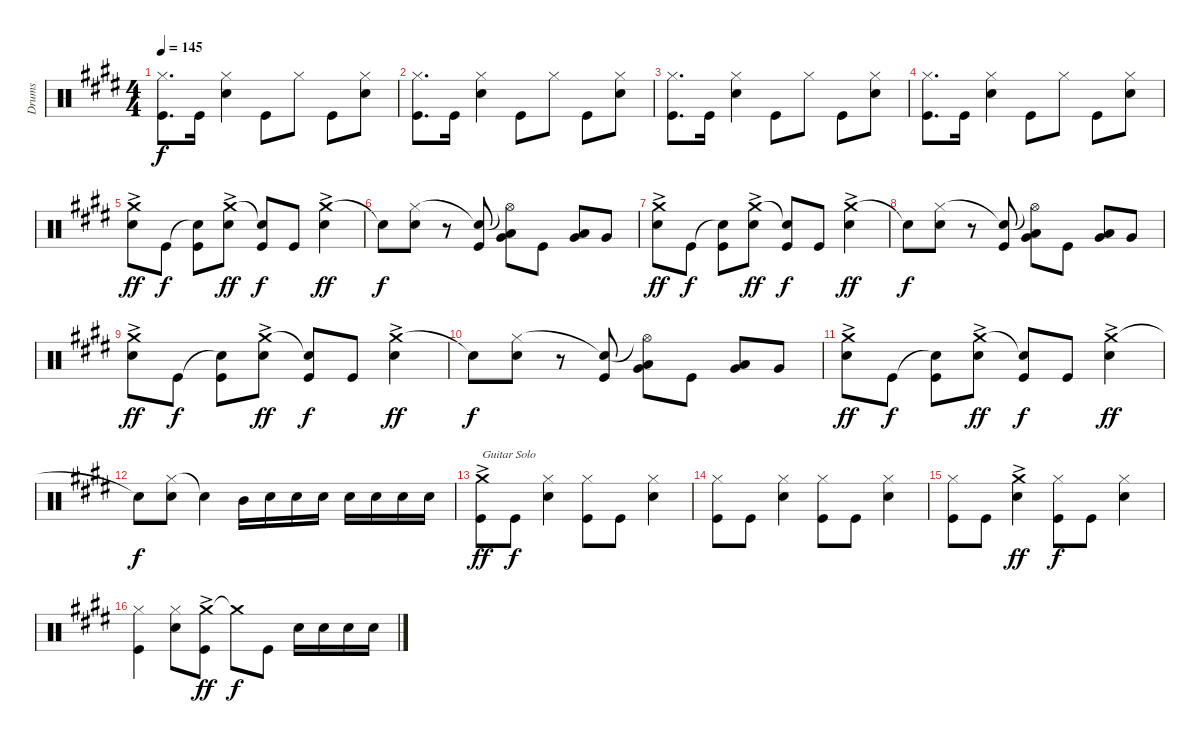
\track ("Drums" "Drums") {instrument percussion}
\staff {score}
\articulation defaults
\ts (4 4)
\tempo 145
\clef neutral
\ks e
("Hi-Hat (closed)" "Kick (hit)").8{d dy f} "Kick (hit)".16 ("Hi-Hat (closed)" "Snare (hit) 2").4 "Kick (hit)".8 "Hi-Hat (closed)".8 "Kick (hit)".8 ("Hi-Hat (closed)" "Snare (hit) 2").8 |
("Hi-Hat (closed)" "Kick (hit)").8{d} "Kick (hit)".16 ("Hi-Hat (closed)" "Snare (hit) 2").4 "Kick (hit)".8 "Hi-Hat (closed)".8 "Kick (hit)".8 ("Hi-Hat (closed)" "Snare (hit) 2").8 |
("Hi-Hat (closed)" "Kick (hit)").8{d} "Kick (hit)".16 ("Hi-Hat (closed)" "Snare (hit) 2").4 "Kick (hit)".8 "Hi-Hat (closed)".8 "Kick (hit)".8 ("Hi-Hat (closed)" "Snare (hit) 2").8 |
("Hi-Hat (closed)" "Kick (hit)").8{d} "Kick (hit)".16 ("Hi-Hat (closed)" "Snare (hit) 2").4 "Kick (hit)".8 "Hi-Hat (closed)".8 "Kick (hit)".8 ("Hi-Hat (closed)" "Snare (hit) 2").8 |
("Crash medium (hit)"{ac} "Snare (hit) 2").8{dy ff} "Kick (hit)".8{dy f} ("Snare (hit)"{t} "Kick (hit)").8 ("Crash medium (hit)"{ac} "Snare (hit) 2").8{dy ff} ("Snare (hit)"{t} "Kick (hit)").8{dy f} "Kick (hit)".8 ("Crash medium (hit)"{ac} "Snare (hit) 2").4{dy ff} |
"Snare (hit)"{t}.8{dy f} ("Hi-Hat (closed)" "Snare (hit) 2").8 r.8 ("Snare (hit)"{t} "Kick (hit)").8 ("Hi-Hat (open)"{t} "Low Tom (hit)" "Very Low Tom (hit)").8 "Kick (hit)".8 ("Low Tom (hit)" "Very Low Tom (hit)").8 "Very Low Tom (hit)".8 |
("Crash medium (hit)"{ac} "Snare (hit) 2").8{dy ff} "Kick (hit)".8{dy f} ("Snare (hit)"{t} "Kick (hit)").8 ("Crash medium (hit)"{ac} "Snare (hit) 2").8{dy ff} ("Snare (hit)"{t} "Kick (hit)").8{dy f} "Kick (hit)".8 ("Crash medium (hit)"{ac} "Snare (hit) 2").4{dy ff} |
"Snare (hit)"{t}.8{dy f} ("Hi-Hat (closed)" "Snare (hit) 2").8 r.8 ("Snare (hit)"{t} "Kick (hit)").8 ("Hi-Hat (open)"{t} "Low Tom (hit)" "Very Low Tom (hit)").8 "Kick (hit)".8 ("Low Tom (hit)" "Very Low Tom (hit)").8 "Very Low Tom (hit)".8 |
("Crash medium (hit)"{ac} "Snare (hit) 2").8{dy ff} "Kick (hit)".8{dy f} ("Snare (hit)"{t} "Kick (hit)").8 ("Crash medium (hit)"{ac} "Snare (hit) 2").8{dy ff} ("Snare (hit)"{t} "Kick (hit)").8{dy f} "Kick (hit)".8 ("Crash medium (hit)"{ac} "Snare (hit) 2").4{dy ff} |
"Snare (hit)"{t}.8{dy f} ("Hi-Hat (closed)" "Snare (hit) 2").8 r.8 ("Snare (hit)"{t} "Kick (hit)").8 ("Hi-Hat (open)"{t} "Low Tom (hit)" "Very Low Tom (hit)").8 "Kick (hit)".8 ("Low Tom (hit)" "Very Low Tom (hit)").8 "Very Low Tom (hit)".8 |
("Crash medium (hit)"{ac} "Snare (hit) 2").8{dy ff} "Kick (hit)".8{dy f} ("Snare (hit)"{t} "Kick (hit)").8 ("Crash medium (hit)"{ac} "Snare (hit) 2").8{dy ff} ("Snare (hit)"{t} "Kick (hit)").8{dy f} "Kick (hit)".8 ("Crash medium (hit)"{ac} "Snare (hit) 2").4{dy ff} |
"Snare (hit)"{t}.8{dy f} ("Hi-Hat (closed)" "Snare (hit) 2").8 "Snare (hit)"{t}.4 "Mid Tom (hit)".16 "Snare (hit) 2".16 "Snare (hit) 2".16 "Snare (hit) 2".16 "Snare (hit) 2".16 "Snare (hit) 2".16 "Snare (hit) 2".16 "Snare (hit) 2".16 |
("Crash medium (hit)"{ac} "Kick (hit)").8{txt "Guitar Solo" dy ff} "Kick (hit)".8{dy f} ("Hi-Hat (closed)" "Snare (hit) 2").4 ("Hi-Hat (closed)" "Kick (hit)").8 "Kick (hit)".8 ("Hi-Hat (closed)" "Snare (hit) 2").4 |
("Hi-Hat (closed)" "Kick (hit)").8 "Kick (hit)".8 ("Hi-Hat (closed)" "Snare (hit) 2").4 ("Hi-Hat (closed)" "Kick (hit)").8 "Kick (hit)".8 ("Hi-Hat (closed)" "Snare (hit) 2").4 |
("Hi-Hat (closed)" "Kick (hit)").8 "Kick (hit)".8 ("Crash medium (hit)"{ac} "Snare (hit) 2").4{dy ff} ("Hi-Hat (closed)" "Kick (hit)").8{dy f} "Kick (hit)".8 ("Hi-Hat (closed)" "Snare (hit) 2").4 |
("Hi-Hat (closed)" "Kick (hit)").4 ("Hi-Hat (closed)" "Snare (hit) 2").8 ("Crash medium (hit)"{ac} "Kick (hit)").8{dy ff} "Crash medium (hit)"{t}.8{dy f} "Kick (hit)".8 "Snare (hit) 2".16 "Snare (hit) 2".16 "Snare (hit) 2".16 "Snare (hit) 2".16
